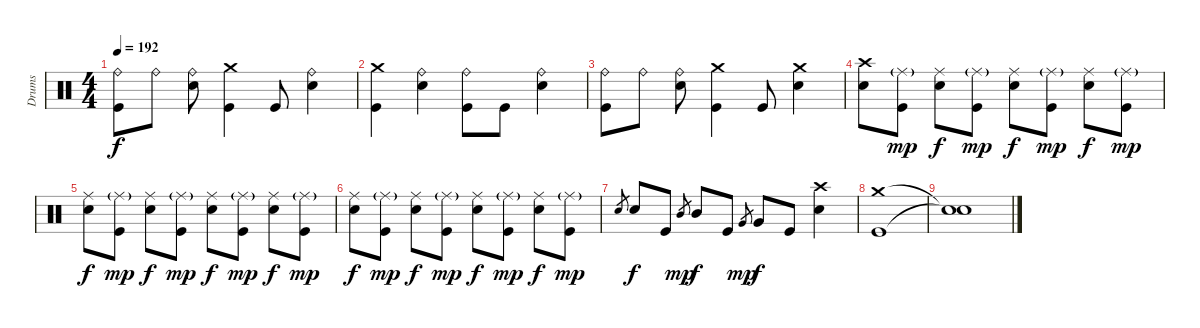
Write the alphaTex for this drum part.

\track ("Drums" "Drums") {instrument percussion}
\staff {score}
\articulation defaults
\ts (4 4)
\tempo 192
\clef neutral
\ks c
("Ride (bell)" "Kick (hit)").8{dy f} "Ride (bell)".8 ("Ride (bell)" "Electric Snare (hit)").8 ("Crash medium (hit)" "Kick (hit)").4 "Kick (hit)".8 ("Ride (bell)" "Electric Snare (hit)").4 |
("Crash medium (hit)" "Kick (hit)").4 ("Ride (bell)" "Electric Snare (hit)").4 ("Ride (bell)" "Kick (hit)").8 "Kick (hit)".8 ("Ride (bell)" "Electric Snare (hit)").4 |
("Ride (bell)" "Kick (hit)").8 "Ride (bell)".8 ("Ride (bell)" "Electric Snare (hit)").8 ("Crash medium (hit)" "Kick (hit)").4 "Kick (hit)".8 ("Crash medium (hit)" "Electric Snare (hit)").4 |
("Crash high (hit)" "Electric Snare (hit)").8 ("Ride (middle)"{g} "Kick (hit)").8{dy mp} ("Ride (middle)" "Electric Snare (hit)").8{dy f} ("Ride (middle)"{g} "Kick (hit)").8{dy mp} ("Ride (middle)" "Electric Snare (hit)").8{dy f} ("Ride (middle)"{g} "Kick (hit)").8{dy mp} ("Ride (middle)" "Electric Snare (hit)").8{dy f} ("Ride (middle)"{g} "Kick (hit)").8{dy mp} |
("Ride (middle)" "Electric Snare (hit)").8{dy f} ("Ride (middle)"{g} "Kick (hit)").8{dy mp} ("Ride (middle)" "Electric Snare (hit)").8{dy f} ("Ride (middle)"{g} "Kick (hit)").8{dy mp} ("Ride (middle)" "Electric Snare (hit)").8{dy f} ("Ride (middle)"{g} "Kick (hit)").8{dy mp} ("Ride (middle)" "Electric Snare (hit)").8{dy f} ("Ride (middle)"{g} "Kick (hit)").8{dy mp} |
("Ride (middle)" "Electric Snare (hit)").8{dy f} ("Ride (middle)"{g} "Kick (hit)").8{dy mp} ("Ride (middle)" "Electric Snare (hit)").8{dy f} ("Ride (middle)"{g} "Kick (hit)").8{dy mp} ("Ride (middle)" "Electric Snare (hit)").8{dy f} ("Ride (middle)"{g} "Kick (hit)").8{dy mp} ("Ride (middle)" "Electric Snare (hit)").8{dy f} ("Ride (middle)"{g} "Kick (hit)").8{dy mp} |
"Electric Snare (hit)".8{gr} "Electric Snare (hit)".8{dy f} "Kick (hit)".8 "Mid Tom (hit)".8{gr dy mp} "Mid Tom (hit)".8{dy f} "Kick (hit)".8 "Very Low Tom (hit)".8{gr dy mp} "Very Low Tom (hit)".8{dy f} "Kick (hit)".8 ("Crash high (hit)" "Electric Snare (hit)").4 |
("Crash medium (hit)" "Kick (hit)").1 |
("Snare (hit)"{t} "Snare (hit)"{t}).1
